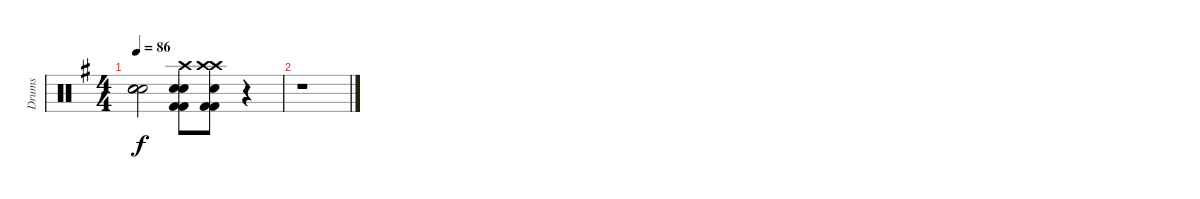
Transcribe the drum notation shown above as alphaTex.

\track ("Drums" "Drums") {instrument percussion}
\staff {score}
\articulation defaults
\ts (4 4)
\tempo 86
\clef neutral
\ks eminor
("Snare (hit)"{t} "Snare (hit)"{t} "Snare (hit)"{t} "Snare (hit)"{t}).2{dy f} ("Kick (hit) 2" "Snare (hit) 2" "Electric Snare (hit)" "Crash high (hit)" "Kick (hit) 2").8 ("Kick (hit) 2" "Snare (hit) 2" "Crash high (hit)" "Crash high (hit)" "Kick (hit) 2").8 r.4 |
r.1
